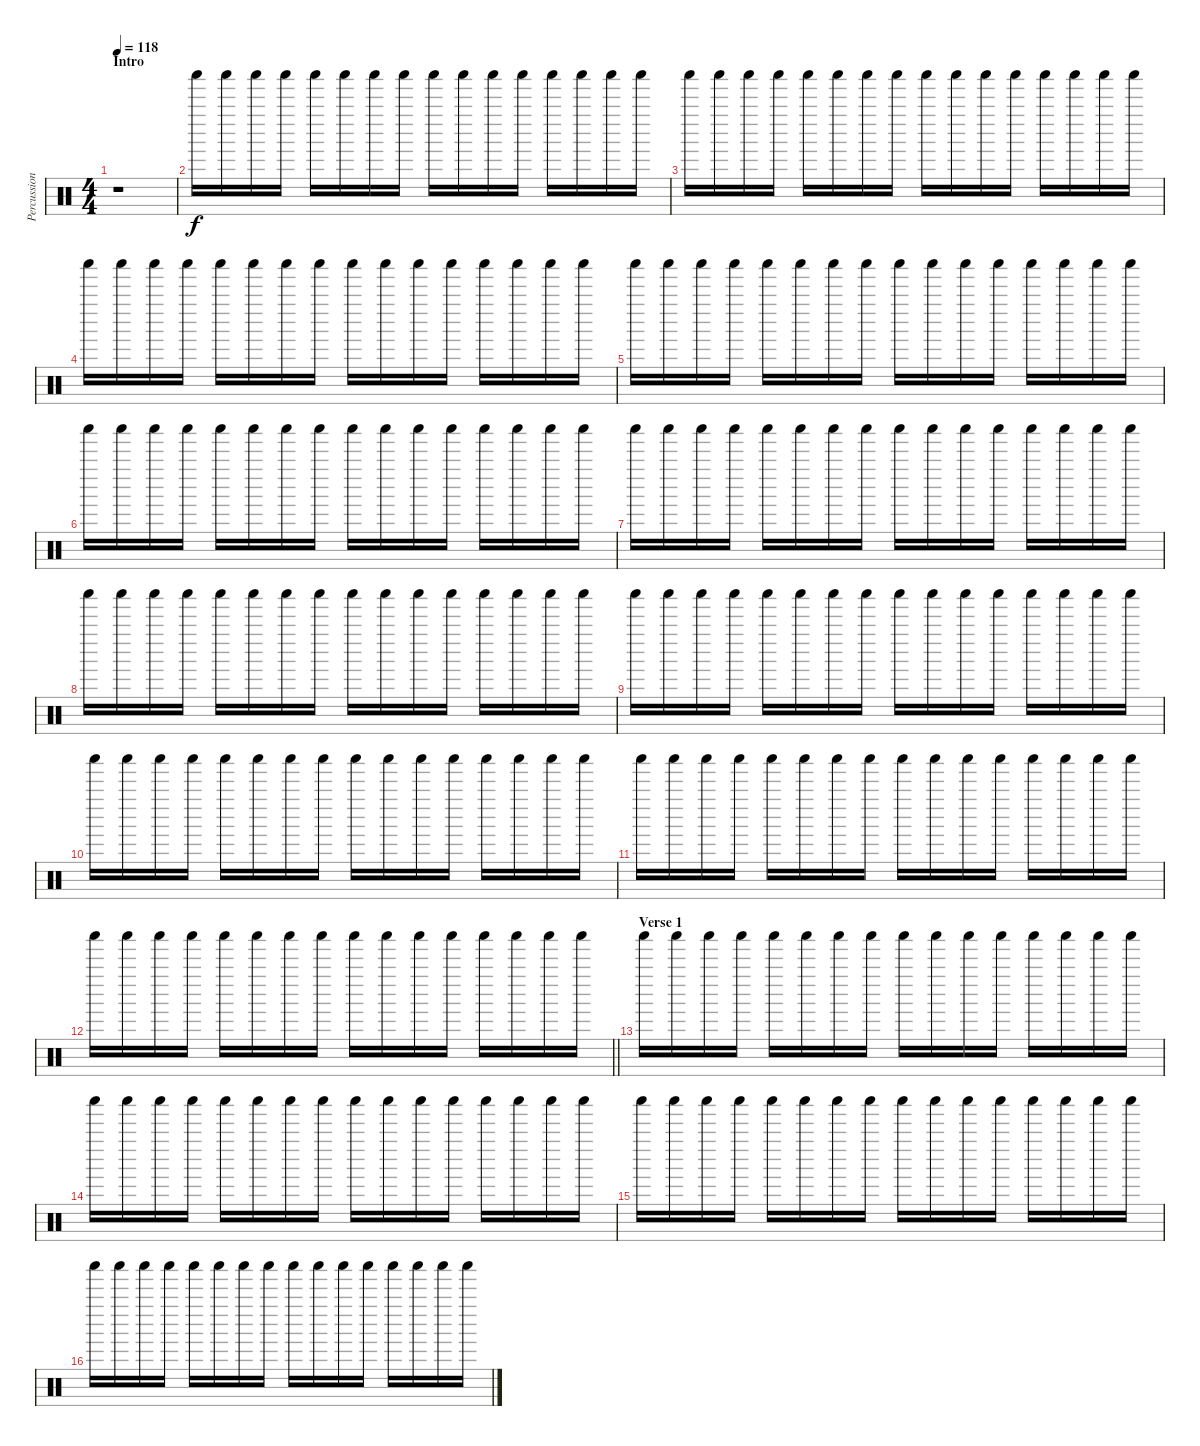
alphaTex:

\track ("Percussion" "Percussion") {instrument percussion}
\staff {score}
\articulation defaults
\ts (4 4)
\section ("" "Intro")
\tempo 118
\clef neutral
\ks c
r.1{dy f} |
"Shaker (hit)".16 "Shaker (hit)".16 "Shaker (hit)".16 "Shaker (hit)".16 "Shaker (hit)".16 "Shaker (hit)".16 "Shaker (hit)".16 "Shaker (hit)".16 "Shaker (hit)".16 "Shaker (hit)".16 "Shaker (hit)".16 "Shaker (hit)".16 "Shaker (hit)".16 "Shaker (hit)".16 "Shaker (hit)".16 "Shaker (hit)".16 |
"Shaker (hit)".16 "Shaker (hit)".16 "Shaker (hit)".16 "Shaker (hit)".16 "Shaker (hit)".16 "Shaker (hit)".16 "Shaker (hit)".16 "Shaker (hit)".16 "Shaker (hit)".16 "Shaker (hit)".16 "Shaker (hit)".16 "Shaker (hit)".16 "Shaker (hit)".16 "Shaker (hit)".16 "Shaker (hit)".16 "Shaker (hit)".16 |
"Shaker (hit)".16 "Shaker (hit)".16 "Shaker (hit)".16 "Shaker (hit)".16 "Shaker (hit)".16 "Shaker (hit)".16 "Shaker (hit)".16 "Shaker (hit)".16 "Shaker (hit)".16 "Shaker (hit)".16 "Shaker (hit)".16 "Shaker (hit)".16 "Shaker (hit)".16 "Shaker (hit)".16 "Shaker (hit)".16 "Shaker (hit)".16 |
"Shaker (hit)".16 "Shaker (hit)".16 "Shaker (hit)".16 "Shaker (hit)".16 "Shaker (hit)".16 "Shaker (hit)".16 "Shaker (hit)".16 "Shaker (hit)".16 "Shaker (hit)".16 "Shaker (hit)".16 "Shaker (hit)".16 "Shaker (hit)".16 "Shaker (hit)".16 "Shaker (hit)".16 "Shaker (hit)".16 "Shaker (hit)".16 |
"Shaker (hit)".16 "Shaker (hit)".16 "Shaker (hit)".16 "Shaker (hit)".16 "Shaker (hit)".16 "Shaker (hit)".16 "Shaker (hit)".16 "Shaker (hit)".16 "Shaker (hit)".16 "Shaker (hit)".16 "Shaker (hit)".16 "Shaker (hit)".16 "Shaker (hit)".16 "Shaker (hit)".16 "Shaker (hit)".16 "Shaker (hit)".16 |
"Shaker (hit)".16 "Shaker (hit)".16 "Shaker (hit)".16 "Shaker (hit)".16 "Shaker (hit)".16 "Shaker (hit)".16 "Shaker (hit)".16 "Shaker (hit)".16 "Shaker (hit)".16 "Shaker (hit)".16 "Shaker (hit)".16 "Shaker (hit)".16 "Shaker (hit)".16 "Shaker (hit)".16 "Shaker (hit)".16 "Shaker (hit)".16 |
"Shaker (hit)".16 "Shaker (hit)".16 "Shaker (hit)".16 "Shaker (hit)".16 "Shaker (hit)".16 "Shaker (hit)".16 "Shaker (hit)".16 "Shaker (hit)".16 "Shaker (hit)".16 "Shaker (hit)".16 "Shaker (hit)".16 "Shaker (hit)".16 "Shaker (hit)".16 "Shaker (hit)".16 "Shaker (hit)".16 "Shaker (hit)".16 |
"Shaker (hit)".16 "Shaker (hit)".16 "Shaker (hit)".16 "Shaker (hit)".16 "Shaker (hit)".16 "Shaker (hit)".16 "Shaker (hit)".16 "Shaker (hit)".16 "Shaker (hit)".16 "Shaker (hit)".16 "Shaker (hit)".16 "Shaker (hit)".16 "Shaker (hit)".16 "Shaker (hit)".16 "Shaker (hit)".16 "Shaker (hit)".16 |
"Shaker (hit)".16 "Shaker (hit)".16 "Shaker (hit)".16 "Shaker (hit)".16 "Shaker (hit)".16 "Shaker (hit)".16 "Shaker (hit)".16 "Shaker (hit)".16 "Shaker (hit)".16 "Shaker (hit)".16 "Shaker (hit)".16 "Shaker (hit)".16 "Shaker (hit)".16 "Shaker (hit)".16 "Shaker (hit)".16 "Shaker (hit)".16 |
"Shaker (hit)".16 "Shaker (hit)".16 "Shaker (hit)".16 "Shaker (hit)".16 "Shaker (hit)".16 "Shaker (hit)".16 "Shaker (hit)".16 "Shaker (hit)".16 "Shaker (hit)".16 "Shaker (hit)".16 "Shaker (hit)".16 "Shaker (hit)".16 "Shaker (hit)".16 "Shaker (hit)".16 "Shaker (hit)".16 "Shaker (hit)".16 |
\barLineRight lightlight "Shaker (hit)".16 "Shaker (hit)".16 "Shaker (hit)".16 "Shaker (hit)".16 "Shaker (hit)".16 "Shaker (hit)".16 "Shaker (hit)".16 "Shaker (hit)".16 "Shaker (hit)".16 "Shaker (hit)".16 "Shaker (hit)".16 "Shaker (hit)".16 "Shaker (hit)".16 "Shaker (hit)".16 "Shaker (hit)".16 "Shaker (hit)".16
|
\section ("" "Verse 1")
"Shaker (hit)".16 "Shaker (hit)".16 "Shaker (hit)".16 "Shaker (hit)".16 "Shaker (hit)".16 "Shaker (hit)".16 "Shaker (hit)".16 "Shaker (hit)".16 "Shaker (hit)".16 "Shaker (hit)".16 "Shaker (hit)".16 "Shaker (hit)".16 "Shaker (hit)".16 "Shaker (hit)".16 "Shaker (hit)".16 "Shaker (hit)".16 |
"Shaker (hit)".16 "Shaker (hit)".16 "Shaker (hit)".16 "Shaker (hit)".16 "Shaker (hit)".16 "Shaker (hit)".16 "Shaker (hit)".16 "Shaker (hit)".16 "Shaker (hit)".16 "Shaker (hit)".16 "Shaker (hit)".16 "Shaker (hit)".16 "Shaker (hit)".16 "Shaker (hit)".16 "Shaker (hit)".16 "Shaker (hit)".16 |
"Shaker (hit)".16 "Shaker (hit)".16 "Shaker (hit)".16 "Shaker (hit)".16 "Shaker (hit)".16 "Shaker (hit)".16 "Shaker (hit)".16 "Shaker (hit)".16 "Shaker (hit)".16 "Shaker (hit)".16 "Shaker (hit)".16 "Shaker (hit)".16 "Shaker (hit)".16 "Shaker (hit)".16 "Shaker (hit)".16 "Shaker (hit)".16 |
"Shaker (hit)".16 "Shaker (hit)".16 "Shaker (hit)".16 "Shaker (hit)".16 "Shaker (hit)".16 "Shaker (hit)".16 "Shaker (hit)".16 "Shaker (hit)".16 "Shaker (hit)".16 "Shaker (hit)".16 "Shaker (hit)".16 "Shaker (hit)".16 "Shaker (hit)".16 "Shaker (hit)".16 "Shaker (hit)".16 "Shaker (hit)".16
